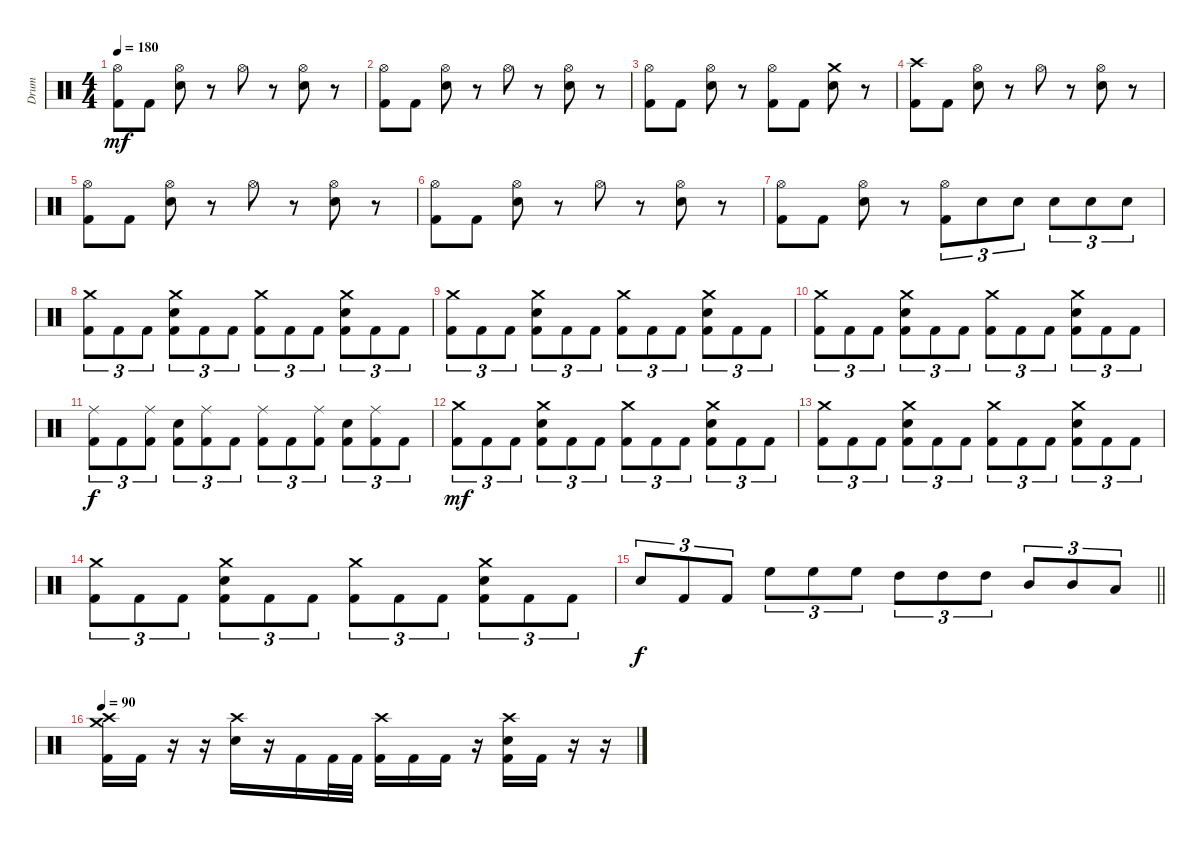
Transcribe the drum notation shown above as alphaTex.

\track ("Drum" "Drum") {instrument percussion}
\staff {score}
\articulation defaults
\ts (4 4)
\tempo 180
\clef neutral
\ks c
("Hi-Hat (open)" "Kick (hit) 2").8{dy mf} "Kick (hit) 2".8 ("Hi-Hat (open)" "Snare (hit) 2").8 r.8 "Hi-Hat (open)".8 r.8 ("Hi-Hat (open)" "Snare (hit) 2").8 r.8 |
("Hi-Hat (open)" "Kick (hit) 2").8 "Kick (hit) 2".8 ("Hi-Hat (open)" "Snare (hit) 2").8 r.8 "Hi-Hat (open)".8 r.8 ("Hi-Hat (open)" "Snare (hit) 2").8 r.8 |
("Hi-Hat (open)" "Kick (hit) 2").8 "Kick (hit) 2".8 ("Hi-Hat (open)" "Snare (hit) 2").8 r.8 ("Hi-Hat (open)" "Kick (hit) 2").8 "Kick (hit) 2".8 ("Crash medium (hit)" "Snare (hit) 2").8 r.8 |
("Crash high (hit)" "Kick (hit) 2").8 "Kick (hit) 2".8 ("Hi-Hat (open)" "Snare (hit) 2").8 r.8 "Hi-Hat (open)".8 r.8 ("Hi-Hat (open)" "Snare (hit) 2").8 r.8 |
("Hi-Hat (open)" "Kick (hit) 2").8 "Kick (hit) 2".8 ("Hi-Hat (open)" "Snare (hit) 2").8 r.8 "Hi-Hat (open)".8 r.8 ("Hi-Hat (open)" "Snare (hit) 2").8 r.8 |
("Hi-Hat (open)" "Kick (hit) 2").8 "Kick (hit) 2".8 ("Hi-Hat (open)" "Snare (hit) 2").8 r.8 "Hi-Hat (open)".8 r.8 ("Hi-Hat (open)" "Snare (hit) 2").8 r.8 |
("Hi-Hat (open)" "Kick (hit) 2").8 "Kick (hit) 2".8 ("Hi-Hat (open)" "Snare (hit) 2").8 r.8 ("Hi-Hat (open)" "Kick (hit) 2").8{tu (3 2)} "Snare (hit) 2".8{tu (3 2)} "Snare (hit) 2".8{tu (3 2)} "Snare (hit) 2".8{tu (3 2)} "Snare (hit) 2".8{tu (3 2)} "Snare (hit) 2".8{tu (3 2)} |
("Crash medium (hit)" "Kick (hit) 2").8{tu (3 2)} "Kick (hit) 2".8{tu (3 2)} "Kick (hit) 2".8{tu (3 2)} ("Crash medium (hit)" "Snare (hit) 2" "Kick (hit) 2").8{tu (3 2)} "Kick (hit) 2".8{tu (3 2)} "Kick (hit) 2".8{tu (3 2)} ("Crash medium (hit)" "Kick (hit) 2").8{tu (3 2)} "Kick (hit) 2".8{tu (3 2)} "Kick (hit) 2".8{tu (3 2)} ("Crash medium (hit)" "Snare (hit) 2" "Kick (hit) 2").8{tu (3 2)} "Kick (hit) 2".8{tu (3 2)} "Kick (hit) 2".8{tu (3 2)} |
("Crash medium (hit)" "Kick (hit) 2").8{tu (3 2)} "Kick (hit) 2".8{tu (3 2)} "Kick (hit) 2".8{tu (3 2)} ("Crash medium (hit)" "Snare (hit) 2" "Kick (hit) 2").8{tu (3 2)} "Kick (hit) 2".8{tu (3 2)} "Kick (hit) 2".8{tu (3 2)} ("Crash medium (hit)" "Kick (hit) 2").8{tu (3 2)} "Kick (hit) 2".8{tu (3 2)} "Kick (hit) 2".8{tu (3 2)} ("Crash medium (hit)" "Snare (hit) 2" "Kick (hit) 2").8{tu (3 2)} "Kick (hit) 2".8{tu (3 2)} "Kick (hit) 2".8{tu (3 2)} |
("Crash medium (hit)" "Kick (hit) 2").8{tu (3 2)} "Kick (hit) 2".8{tu (3 2)} "Kick (hit) 2".8{tu (3 2)} ("Crash medium (hit)" "Snare (hit) 2" "Kick (hit) 2").8{tu (3 2)} "Kick (hit) 2".8{tu (3 2)} "Kick (hit) 2".8{tu (3 2)} ("Crash medium (hit)" "Kick (hit) 2").8{tu (3 2)} "Kick (hit) 2".8{tu (3 2)} "Kick (hit) 2".8{tu (3 2)} ("Crash medium (hit)" "Snare (hit) 2" "Kick (hit) 2").8{tu (3 2)} "Kick (hit) 2".8{tu (3 2)} "Kick (hit) 2".8{tu (3 2)} |
("Ride (middle)" "Kick (hit) 2").8{tu (3 2) dy f} "Kick (hit) 2".8{tu (3 2)} ("Ride (middle)" "Kick (hit) 2").8{tu (3 2)} ("Snare (hit) 2" "Kick (hit) 2").8{tu (3 2)} ("Ride (middle)" "Kick (hit) 2").8{tu (3 2)} "Kick (hit) 2".8{tu (3 2)} ("Ride (middle)" "Kick (hit) 2").8{tu (3 2)} "Kick (hit) 2".8{tu (3 2)} ("Ride (middle)" "Kick (hit) 2").8{tu (3 2)} ("Snare (hit) 2" "Kick (hit) 2").8{tu (3 2)} ("Ride (middle)" "Kick (hit) 2").8{tu (3 2)} "Kick (hit) 2".8{tu (3 2)} |
("Crash medium (hit)" "Kick (hit) 2").8{tu (3 2) dy mf} "Kick (hit) 2".8{tu (3 2)} "Kick (hit) 2".8{tu (3 2)} ("Crash medium (hit)" "Snare (hit) 2" "Kick (hit) 2").8{tu (3 2)} "Kick (hit) 2".8{tu (3 2)} "Kick (hit) 2".8{tu (3 2)} ("Crash medium (hit)" "Kick (hit) 2").8{tu (3 2)} "Kick (hit) 2".8{tu (3 2)} "Kick (hit) 2".8{tu (3 2)} ("Crash medium (hit)" "Snare (hit) 2" "Kick (hit) 2").8{tu (3 2)} "Kick (hit) 2".8{tu (3 2)} "Kick (hit) 2".8{tu (3 2)} |
("Crash medium (hit)" "Kick (hit) 2").8{tu (3 2)} "Kick (hit) 2".8{tu (3 2)} "Kick (hit) 2".8{tu (3 2)} ("Crash medium (hit)" "Snare (hit) 2" "Kick (hit) 2").8{tu (3 2)} "Kick (hit) 2".8{tu (3 2)} "Kick (hit) 2".8{tu (3 2)} ("Crash medium (hit)" "Kick (hit) 2").8{tu (3 2)} "Kick (hit) 2".8{tu (3 2)} "Kick (hit) 2".8{tu (3 2)} ("Crash medium (hit)" "Snare (hit) 2" "Kick (hit) 2").8{tu (3 2)} "Kick (hit) 2".8{tu (3 2)} "Kick (hit) 2".8{tu (3 2)} |
("Crash medium (hit)" "Kick (hit) 2").8{tu (3 2)} "Kick (hit) 2".8{tu (3 2)} "Kick (hit) 2".8{tu (3 2)} ("Crash medium (hit)" "Snare (hit) 2" "Kick (hit) 2").8{tu (3 2)} "Kick (hit) 2".8{tu (3 2)} "Kick (hit) 2".8{tu (3 2)} ("Crash medium (hit)" "Kick (hit) 2").8{tu (3 2)} "Kick (hit) 2".8{tu (3 2)} "Kick (hit) 2".8{tu (3 2)} ("Crash medium (hit)" "Snare (hit) 2" "Kick (hit) 2").8{tu (3 2)} "Kick (hit) 2".8{tu (3 2)} "Kick (hit) 2".8{tu (3 2)} |
\barLineRight lightlight "Snare (hit) 2".8{tu (3 2) dy f} "Kick (hit) 2".8{tu (3 2)} "Kick (hit) 2".8{tu (3 2)} "High Floor Tom (hit)".8{tu (3 2)} "High Floor Tom (hit)".8{tu (3 2)} "High Floor Tom (hit)".8{tu (3 2)} "High Tom (hit)".8{tu (3 2)} "High Tom (hit)".8{tu (3 2)} "High Tom (hit)".8{tu (3 2)} "Mid Tom (hit)".8{tu (3 2)} "Mid Tom (hit)".8{tu (3 2)} "Low Tom (hit)".8{tu (3 2)}
|
\tempo 90
("Crash high (hit)" "Crash medium (hit)" "Kick (hit) 2").16 "Kick (hit) 2".16 r.16 r.16 ("Crash high (hit)" "Snare (hit) 2").16 r.16 "Kick (hit) 2".16 "Kick (hit) 2".32 "Kick (hit) 2".32 ("Crash high (hit)" "Kick (hit) 2").16 "Kick (hit) 2".16 "Kick (hit) 2".16 r.16 ("Crash high (hit)" "Snare (hit) 2" "Kick (hit) 2").16 "Kick (hit) 2".16 r.16 r.16
